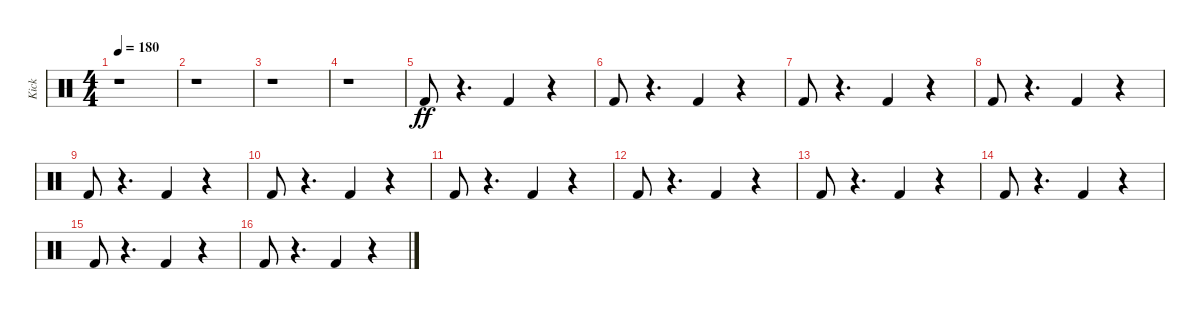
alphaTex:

\track ("Kick" "Kick") {instrument percussion}
\staff {score}
\articulation defaults
\ts (4 4)
\tempo 180
\clef neutral
\ks c
r.1{dy ff} |
r.1 |
r.1 |
r.1 |
"Kick (hit) 2".8 r.4{d} "Kick (hit) 2".4 r.4 |
"Kick (hit) 2".8 r.4{d} "Kick (hit) 2".4 r.4 |
"Kick (hit) 2".8 r.4{d} "Kick (hit) 2".4 r.4 |
"Kick (hit) 2".8 r.4{d} "Kick (hit) 2".4 r.4 |
"Kick (hit) 2".8 r.4{d} "Kick (hit) 2".4 r.4 |
"Kick (hit) 2".8 r.4{d} "Kick (hit) 2".4 r.4 |
"Kick (hit) 2".8 r.4{d} "Kick (hit) 2".4 r.4 |
"Kick (hit) 2".8 r.4{d} "Kick (hit) 2".4 r.4 |
"Kick (hit) 2".8 r.4{d} "Kick (hit) 2".4 r.4 |
"Kick (hit) 2".8 r.4{d} "Kick (hit) 2".4 r.4 |
"Kick (hit) 2".8 r.4{d} "Kick (hit) 2".4 r.4 |
"Kick (hit) 2".8 r.4{d} "Kick (hit) 2".4 r.4
